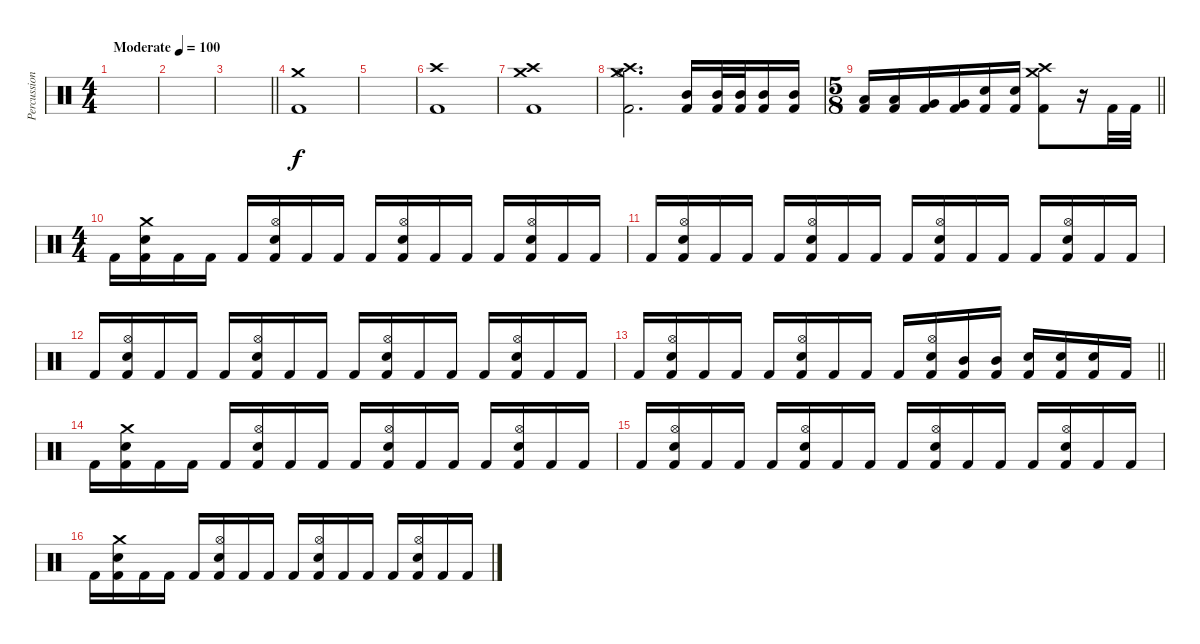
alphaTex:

\track ("Percussion" "Percussion") {instrument percussion}
\staff {score}
\articulation defaults
\ts (4 4)
\tempo (100 "Moderate")
\clef neutral
\ks c
|
|
\barLineRight lightlight
|
\section ("" "")
("Crash medium (hit)" "Kick (hit) 2").1 |
|
("Crash high (hit)" "Kick (hit) 2").1 |
("Crash high (hit)" "Crash medium (hit)" "Kick (hit) 2").1 |
("Hi-Hat (open)" "Crash medium (hit)" "Crash high (hit)" "Kick (hit) 2").2{d} ("Mid Tom (hit)" "Kick (hit) 2").16 ("Mid Tom (hit)" "Kick (hit) 2").32 ("Mid Tom (hit)" "Kick (hit) 2").32 ("Mid Tom (hit)" "Kick (hit) 2").16 ("Mid Tom (hit)" "Kick (hit) 2").16 |
\ts (5 8)
\barLineRight lightlight
("Low Tom (hit)" "Kick (hit) 2").16 ("Low Tom (hit)" "Kick (hit) 2").16 ("Very Low Tom (hit)" "Kick (hit) 2").16 ("Very Low Tom (hit)" "Kick (hit) 2").16 ("Electric Snare (hit)" "Kick (hit) 2").16 ("Electric Snare (hit)" "Kick (hit) 2").16 ("Crash medium (hit)" "Crash high (hit)" "Kick (hit) 2").8 r.16 "Kick (hit) 2".32 "Kick (hit) 2".32 |
\ts (4 4)
\section ("" "")
"Kick (hit) 2".16 ("Crash medium (hit)" "Electric Snare (hit)" "Kick (hit) 2").16 "Kick (hit) 2".16 "Kick (hit) 2".16 "Kick (hit) 2".16 ("Hi-Hat (open)" "Electric Snare (hit)" "Kick (hit) 2").16 "Kick (hit) 2".16 "Kick (hit) 2".16 "Kick (hit) 2".16 ("Hi-Hat (open)" "Electric Snare (hit)" "Kick (hit) 2").16 "Kick (hit) 2".16 "Kick (hit) 2".16 "Kick (hit) 2".16 ("Hi-Hat (open)" "Electric Snare (hit)" "Kick (hit) 2").16 "Kick (hit) 2".16 "Kick (hit) 2".16 |
"Kick (hit) 2".16 ("Hi-Hat (open)" "Electric Snare (hit)" "Kick (hit) 2").16 "Kick (hit) 2".16 "Kick (hit) 2".16 "Kick (hit) 2".16 ("Hi-Hat (open)" "Electric Snare (hit)" "Kick (hit) 2").16 "Kick (hit) 2".16 "Kick (hit) 2".16 "Kick (hit) 2".16 ("Hi-Hat (open)" "Electric Snare (hit)" "Kick (hit) 2").16 "Kick (hit) 2".16 "Kick (hit) 2".16 "Kick (hit) 2".16 ("Hi-Hat (open)" "Electric Snare (hit)" "Kick (hit) 2").16 "Kick (hit) 2".16 "Kick (hit) 2".16 |
"Kick (hit) 2".16 ("Hi-Hat (open)" "Electric Snare (hit)" "Kick (hit) 2").16 "Kick (hit) 2".16 "Kick (hit) 2".16 "Kick (hit) 2".16 ("Hi-Hat (open)" "Electric Snare (hit)" "Kick (hit) 2").16 "Kick (hit) 2".16 "Kick (hit) 2".16 "Kick (hit) 2".16 ("Hi-Hat (open)" "Electric Snare (hit)" "Kick (hit) 2").16 "Kick (hit) 2".16 "Kick (hit) 2".16 "Kick (hit) 2".16 ("Hi-Hat (open)" "Electric Snare (hit)" "Kick (hit) 2").16 "Kick (hit) 2".16 "Kick (hit) 2".16 |
\barLineRight lightlight "Kick (hit) 2".16
("Hi-Hat (open)" "Electric Snare (hit)" "Kick (hit) 2").16 "Kick (hit) 2".16 "Kick (hit) 2".16 "Kick (hit) 2".16 ("Hi-Hat (open)" "Electric Snare (hit)" "Kick (hit) 2").16 "Kick (hit) 2".16 "Kick (hit) 2".16 "Kick (hit) 2".16 ("Hi-Hat (open)" "Electric Snare (hit)" "Kick (hit) 2").16 ("Mid Tom (hit)" "Kick (hit) 2").16 ("Mid Tom (hit)" "Kick (hit) 2").16 ("Electric Snare (hit)" "Kick (hit) 2").16 ("Electric Snare (hit)" "Kick (hit) 2").16 ("Electric Snare (hit)" "Kick (hit) 2").16 "Kick (hit) 2".16 |
\section ("" "")
"Kick (hit) 2".16 ("Crash medium (hit)" "Electric Snare (hit)" "Kick (hit) 2").16 "Kick (hit) 2".16 "Kick (hit) 2".16 "Kick (hit) 2".16 ("Hi-Hat (open)" "Electric Snare (hit)" "Kick (hit) 2").16 "Kick (hit) 2".16 "Kick (hit) 2".16 "Kick (hit) 2".16 ("Hi-Hat (open)" "Electric Snare (hit)" "Kick (hit) 2").16 "Kick (hit) 2".16 "Kick (hit) 2".16 "Kick (hit) 2".16 ("Hi-Hat (open)" "Electric Snare (hit)" "Kick (hit) 2").16 "Kick (hit) 2".16 "Kick (hit) 2".16 |
"Kick (hit) 2".16 ("Hi-Hat (open)" "Electric Snare (hit)" "Kick (hit) 2").16 "Kick (hit) 2".16 "Kick (hit) 2".16 "Kick (hit) 2".16 ("Hi-Hat (open)" "Electric Snare (hit)" "Kick (hit) 2").16 "Kick (hit) 2".16 "Kick (hit) 2".16 "Kick (hit) 2".16 ("Hi-Hat (open)" "Electric Snare (hit)" "Kick (hit) 2").16 "Kick (hit) 2".16 "Kick (hit) 2".16 "Kick (hit) 2".16 ("Hi-Hat (open)" "Electric Snare (hit)" "Kick (hit) 2").16 "Kick (hit) 2".16 "Kick (hit) 2".16 |
"Kick (hit) 2".16 ("Crash medium (hit)" "Electric Snare (hit)" "Kick (hit) 2").16 "Kick (hit) 2".16 "Kick (hit) 2".16 "Kick (hit) 2".16 ("Hi-Hat (open)" "Electric Snare (hit)" "Kick (hit) 2").16 "Kick (hit) 2".16 "Kick (hit) 2".16 "Kick (hit) 2".16 ("Hi-Hat (open)" "Electric Snare (hit)" "Kick (hit) 2").16 "Kick (hit) 2".16 "Kick (hit) 2".16 "Kick (hit) 2".16 ("Hi-Hat (open)" "Electric Snare (hit)" "Kick (hit) 2").16 "Kick (hit) 2".16 "Kick (hit) 2".16
